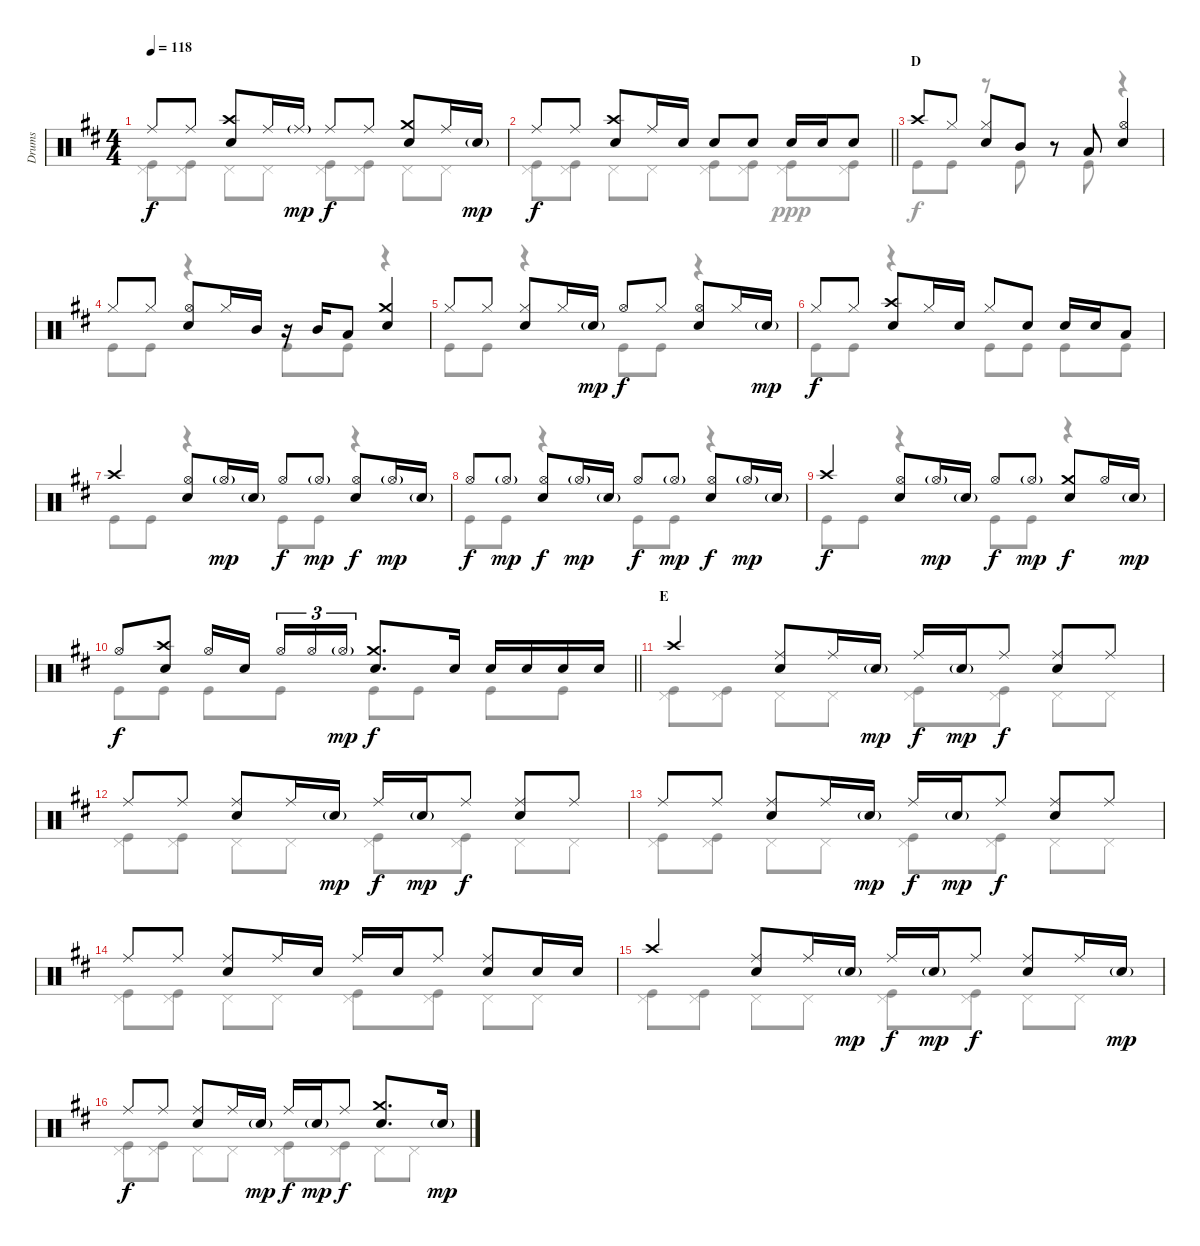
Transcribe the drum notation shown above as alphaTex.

\track ("Drums" "Drums") {instrument percussion}
\staff {score}
\articulation defaults
\voice
\ts (4 4)
\tempo 118
\clef neutral
\ks d "Ride (middle)".8{dy f} "Ride (middle)".8
("Crash high (hit)" "Snare (hit) 2").8 "Ride (middle)".16 "Ride (middle)"{g}.16{dy mp} "Ride (middle)".8{dy f} "Ride (middle)".8 ("Crash medium (hit)" "Snare (hit) 2").8 "Ride (middle)".16 "Snare (hit) 2"{g}.16{dy mp} |
\barLineRight lightlight "Ride (middle)".8{dy f} "Ride (middle)".8
("Crash high (hit)" "Snare (hit) 2").8 "Ride (middle)".16 "Snare (hit) 2".16 "Snare (hit) 2".8 "Snare (hit) 2".8 "Snare (hit) 2".16 "Snare (hit) 2".16 "Snare (hit) 2".8 |
\section ("" "D")
"Crash high (hit)".8 "Hi-Hat (closed)".8 ("Hi-Hat (closed)" "Snare (hit) 2").8 "Mid Tom (hit)".8 r.8 "Low Tom (hit)".8 ("Hi-Hat (open)" "Snare (hit) 2").4 |
"Hi-Hat (closed)".8 "Hi-Hat (closed)".8 ("Hi-Hat (open)" "Snare (hit) 2").8 "Hi-Hat (closed)".16 "Mid Tom (hit)".16 r.16 "Mid Tom (hit)".16 "Low Tom (hit)".8 ("Crash medium (hit)" "Snare (hit) 2").4 |
"Hi-Hat (closed)".8 "Hi-Hat (closed)".8 ("Hi-Hat (closed)" "Snare (hit) 2").8 "Hi-Hat (closed)".16 "Snare (hit) 2"{g}.16{dy mp} "Hi-Hat (open)".8{dy f} "Hi-Hat (closed)".8 ("Hi-Hat (open)" "Snare (hit) 2").8 "Hi-Hat (closed)".16 "Snare (hit) 2"{g}.16{dy mp} |
"Hi-Hat (closed)".8{dy f} "Hi-Hat (closed)".8 ("Crash high (hit)" "Snare (hit) 2").8 "Hi-Hat (closed)".16 "Snare (hit) 2".16 "Hi-Hat (closed)".8 "Snare (hit) 2".8 "Snare (hit) 2".16 "Snare (hit) 2".16 "Low Tom (hit)".8 |
"Crash high (hit)".4 ("Hi-Hat (open)" "Snare (hit) 2").8 "Hi-Hat (open)"{g}.16{dy mp} "Snare (hit) 2"{g}.16 "Hi-Hat (open)".8{dy f} "Hi-Hat (open)"{g}.8{dy mp} ("Hi-Hat (open)" "Snare (hit) 2").8{dy f} "Hi-Hat (open)"{g}.16{dy mp} "Snare (hit) 2"{g}.16 |
"Hi-Hat (open)".8{dy f} "Hi-Hat (open)"{g}.8{dy mp} ("Hi-Hat (open)" "Snare (hit) 2").8{dy f} "Hi-Hat (open)"{g}.16{dy mp} "Snare (hit) 2"{g}.16 "Hi-Hat (open)".8{dy f} "Hi-Hat (open)"{g}.8{dy mp} ("Hi-Hat (open)" "Snare (hit) 2").8{dy f} "Hi-Hat (open)"{g}.16{dy mp} "Snare (hit) 2"{g}.16 |
"Crash high (hit)".4{dy f} ("Hi-Hat (open)" "Snare (hit) 2").8 "Hi-Hat (open)"{g}.16{dy mp} "Snare (hit) 2"{g}.16 "Hi-Hat (open)".8{dy f} "Hi-Hat (open)"{g}.8{dy mp} ("Crash medium (hit)" "Snare (hit) 2").8{dy f} "Hi-Hat (open)".16 "Snare (hit) 2"{g}.16{dy mp} |
\barLineRight lightlight "Hi-Hat (open)".8{dy f}
("Crash high (hit)" "Snare (hit) 2").8 "Hi-Hat (open)".16 "Snare (hit) 2".16{beam splitsecondary} "Hi-Hat (open)".16{tu (3 2)} "Hi-Hat (open)".16{tu (3 2)} "Hi-Hat (open)"{g}.16{tu (3 2) dy mp} ("Crash medium (hit)" "Snare (hit) 2").8{d dy f} "Snare (hit) 2".16 "Snare (hit) 2".16 "Snare (hit) 2".16 "Snare (hit) 2".16 "Snare (hit) 2".16 |
\section ("" "E")
"Crash high (hit)".4 ("Ride (middle)" "Snare (hit) 2").8 "Ride (middle)".16 "Snare (hit) 2"{g}.16{dy mp} "Ride (middle)".16{dy f} "Snare (hit) 2"{g}.16{dy mp} "Ride (middle)".8{dy f} ("Ride (middle)" "Snare (hit) 2").8 "Ride (middle)".8 |
"Ride (middle)".8 "Ride (middle)".8 ("Ride (middle)" "Snare (hit) 2").8 "Ride (middle)".16 "Snare (hit) 2"{g}.16{dy mp} "Ride (middle)".16{dy f} "Snare (hit) 2"{g}.16{dy mp} "Ride (middle)".8{dy f} ("Ride (middle)" "Snare (hit) 2").8 "Ride (middle)".8 |
"Ride (middle)".8 "Ride (middle)".8 ("Ride (middle)" "Snare (hit) 2").8 "Ride (middle)".16 "Snare (hit) 2"{g}.16{dy mp} "Ride (middle)".16{dy f} "Snare (hit) 2"{g}.16{dy mp} "Ride (middle)".8{dy f} ("Ride (middle)" "Snare (hit) 2").8 "Ride (middle)".8 |
"Ride (middle)".8 "Ride (middle)".8 ("Ride (middle)" "Snare (hit) 2").8 "Ride (middle)".16 "Snare (hit) 2".16 "Ride (middle)".16 "Snare (hit) 2".16 "Ride (middle)".8 ("Ride (middle)" "Snare (hit) 2").8 "Snare (hit) 2".16 "Snare (hit) 2".16 |
"Crash high (hit)".4 ("Ride (middle)" "Snare (hit) 2").8 "Ride (middle)".16 "Snare (hit) 2"{g}.16{dy mp} "Ride (middle)".16{dy f} "Snare (hit) 2"{g}.16{dy mp} "Ride (middle)".8{dy f} ("Ride (middle)" "Snare (hit) 2").8 "Ride (middle)".16 "Snare (hit) 2"{g}.16{dy mp} |
"Ride (middle)".8{dy f} "Ride (middle)".8 ("Ride (middle)" "Snare (hit) 2").8 "Ride (middle)".16 "Snare (hit) 2"{g}.16{dy mp} "Ride (middle)".16{dy f} "Snare (hit) 2"{g}.16{dy mp} "Ride (middle)".8{dy f} ("Crash medium (hit)" "Snare (hit) 2").8{d} "Snare (hit) 2"{g}.16{dy mp}
\voice
\clef neutral
\ottava regular
\simile none
\ks d
("Pedal Hi-Hat (hit)" "Kick (hit)").8{dy f} ("Pedal Hi-Hat (hit)" "Kick (hit)").8 "Pedal Hi-Hat (hit)".8 "Pedal Hi-Hat (hit)".8 ("Pedal Hi-Hat (hit)" "Kick (hit)").8 ("Pedal Hi-Hat (hit)" "Kick (hit)").8 "Pedal Hi-Hat (hit)".8 "Pedal Hi-Hat (hit)".8 |
\barLineRight lightlight
("Pedal Hi-Hat (hit)" "Kick (hit)").8 ("Pedal Hi-Hat (hit)" "Kick (hit)").8 "Pedal Hi-Hat (hit)".8 "Pedal Hi-Hat (hit)".8 ("Pedal Hi-Hat (hit)" "Kick (hit)").8 ("Pedal Hi-Hat (hit)" "Kick (hit)").8 ("Pedal Hi-Hat (hit)" "Kick (hit)").8{dy ppp} ("Pedal Hi-Hat (hit)" "Kick (hit)").8 |
"Kick (hit)".8{dy f} "Kick (hit)".8 r.8 "Kick (hit)".8 r.8 "Kick (hit)".8 r.4 |
"Kick (hit)".8 "Kick (hit)".8 r.4 "Kick (hit)".8 "Kick (hit)".8 r.4 |
"Kick (hit)".8 "Kick (hit)".8 r.4 "Kick (hit)".8 "Kick (hit)".8 r.4 |
"Kick (hit)".8 "Kick (hit)".8 r.4 "Kick (hit)".8 "Kick (hit)".8 "Kick (hit)".8 "Kick (hit)".8 |
"Kick (hit)".8 "Kick (hit)".8 r.4 "Kick (hit)".8 "Kick (hit)".8 r.4 |
"Kick (hit)".8 "Kick (hit)".8 r.4 "Kick (hit)".8 "Kick (hit)".8 r.4 |
"Kick (hit)".8 "Kick (hit)".8 r.4 "Kick (hit)".8 "Kick (hit)".8 r.4 |
\barLineRight lightlight "Kick (hit)".8 "Kick (hit)".8 "Kick (hit)".8 "Kick (hit)".8 "Kick (hit)".8 "Kick (hit)".8 "Kick (hit)".8 "Kick (hit)".8
|
("Pedal Hi-Hat (hit)" "Kick (hit)").8 ("Pedal Hi-Hat (hit)" "Kick (hit)").8 "Pedal Hi-Hat (hit)".8 "Pedal Hi-Hat (hit)".8 ("Pedal Hi-Hat (hit)" "Kick (hit)").8 ("Pedal Hi-Hat (hit)" "Kick (hit)").8 "Pedal Hi-Hat (hit)".8 "Pedal Hi-Hat (hit)".8 |
("Pedal Hi-Hat (hit)" "Kick (hit)").8 ("Pedal Hi-Hat (hit)" "Kick (hit)").8 "Pedal Hi-Hat (hit)".8 "Pedal Hi-Hat (hit)".8 ("Pedal Hi-Hat (hit)" "Kick (hit)").8 ("Pedal Hi-Hat (hit)" "Kick (hit)").8 "Pedal Hi-Hat (hit)".8 "Pedal Hi-Hat (hit)".8 |
("Pedal Hi-Hat (hit)" "Kick (hit)").8 ("Pedal Hi-Hat (hit)" "Kick (hit)").8 "Pedal Hi-Hat (hit)".8 "Pedal Hi-Hat (hit)".8 ("Pedal Hi-Hat (hit)" "Kick (hit)").8 ("Pedal Hi-Hat (hit)" "Kick (hit)").8 "Pedal Hi-Hat (hit)".8 "Pedal Hi-Hat (hit)".8 |
("Pedal Hi-Hat (hit)" "Kick (hit)").8 ("Pedal Hi-Hat (hit)" "Kick (hit)").8 "Pedal Hi-Hat (hit)".8 "Pedal Hi-Hat (hit)".8 ("Pedal Hi-Hat (hit)" "Kick (hit)").8 ("Pedal Hi-Hat (hit)" "Kick (hit)").8 "Pedal Hi-Hat (hit)".8 "Pedal Hi-Hat (hit)".8 |
("Pedal Hi-Hat (hit)" "Kick (hit)").8 ("Pedal Hi-Hat (hit)" "Kick (hit)").8 "Pedal Hi-Hat (hit)".8 "Pedal Hi-Hat (hit)".8 ("Pedal Hi-Hat (hit)" "Kick (hit)").8 ("Pedal Hi-Hat (hit)" "Kick (hit)").8 "Pedal Hi-Hat (hit)".8 "Pedal Hi-Hat (hit)".8 |
("Pedal Hi-Hat (hit)" "Kick (hit)").8 ("Pedal Hi-Hat (hit)" "Kick (hit)").8 "Pedal Hi-Hat (hit)".8 "Pedal Hi-Hat (hit)".8 ("Pedal Hi-Hat (hit)" "Kick (hit)").8 ("Pedal Hi-Hat (hit)" "Kick (hit)").8 "Pedal Hi-Hat (hit)".8 "Pedal Hi-Hat (hit)".8
